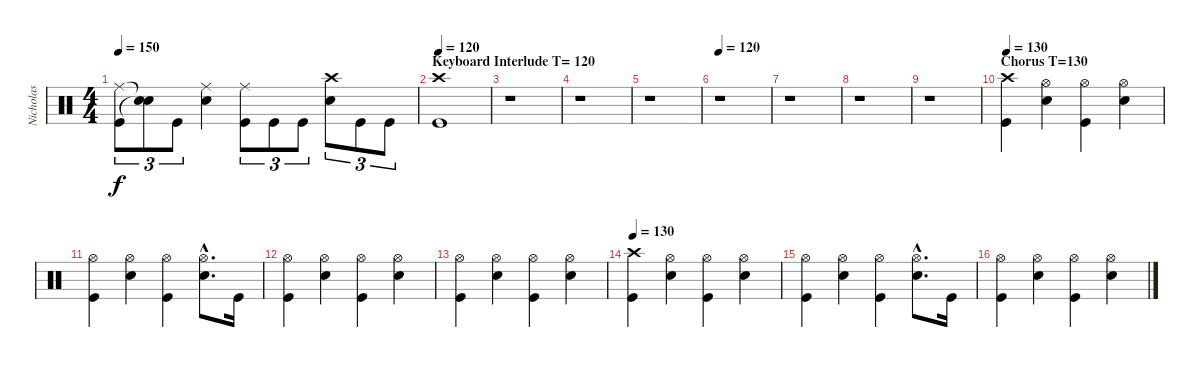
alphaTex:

\track ("Nicholas" "Nicholas") {instrument percussion}
\staff {score}
\articulation defaults
\ts (4 4)
\tempo 150
\clef neutral
\ks c
("Ride (middle)" "Kick (hit)").8{tu (3 2) dy f} ("Snare (hit)"{t} "Snare (hit)"{t}).8{tu (3 2)} "Kick (hit)".8{tu (3 2)} ("Ride (middle)" "Electric Snare (hit)").4 ("Ride (middle)" "Kick (hit)").8{tu (3 2)} "Kick (hit)".8{tu (3 2)} "Kick (hit)".8{tu (3 2)} ("Crash high (hit)" "Electric Snare (hit)").8{tu (3 2)} "Kick (hit)".8{tu (3 2)} "Kick (hit)".8{tu (3 2)} |
\section ("" "Keyboard Interlude T= 120")
\tempo 120
("Crash high (hit)" "Kick (hit)").1 |
r.1 |
r.1 |
r.1 |
\tempo 120
r.1 |
r.1 |
r.1 |
r.1 |
\section ("" "Chorus T=130")
\tempo 130
("Crash high (hit)" "Kick (hit)").4 ("Hi-Hat (open)" "Electric Snare (hit)").4 ("Hi-Hat (open)" "Kick (hit)").4 ("Hi-Hat (open)" "Electric Snare (hit)").4 |
("Hi-Hat (open)" "Kick (hit)").4 ("Hi-Hat (open)" "Electric Snare (hit)").4 ("Hi-Hat (open)" "Kick (hit)").4 ("Hi-Hat (open)"{hac} "Electric Snare (hit)"{hac}).8{d} "Kick (hit)".16 |
("Hi-Hat (open)" "Kick (hit)").4 ("Hi-Hat (open)" "Electric Snare (hit)").4 ("Hi-Hat (open)" "Kick (hit)").4 ("Hi-Hat (open)" "Electric Snare (hit)").4 |
("Hi-Hat (open)" "Kick (hit)").4 ("Hi-Hat (open)" "Electric Snare (hit)").4 ("Hi-Hat (open)" "Kick (hit)").4 ("Hi-Hat (open)" "Electric Snare (hit)").4 |
\tempo 130
("Crash high (hit)" "Kick (hit)").4 ("Hi-Hat (open)" "Electric Snare (hit)").4 ("Hi-Hat (open)" "Kick (hit)").4 ("Hi-Hat (open)" "Electric Snare (hit)").4 |
("Hi-Hat (open)" "Kick (hit)").4 ("Hi-Hat (open)" "Electric Snare (hit)").4 ("Hi-Hat (open)" "Kick (hit)").4 ("Hi-Hat (open)"{hac} "Electric Snare (hit)"{hac}).8{d} "Kick (hit)".16 |
("Hi-Hat (open)" "Kick (hit)").4 ("Hi-Hat (open)" "Electric Snare (hit)").4 ("Hi-Hat (open)" "Kick (hit)").4 ("Hi-Hat (open)" "Electric Snare (hit)").4
